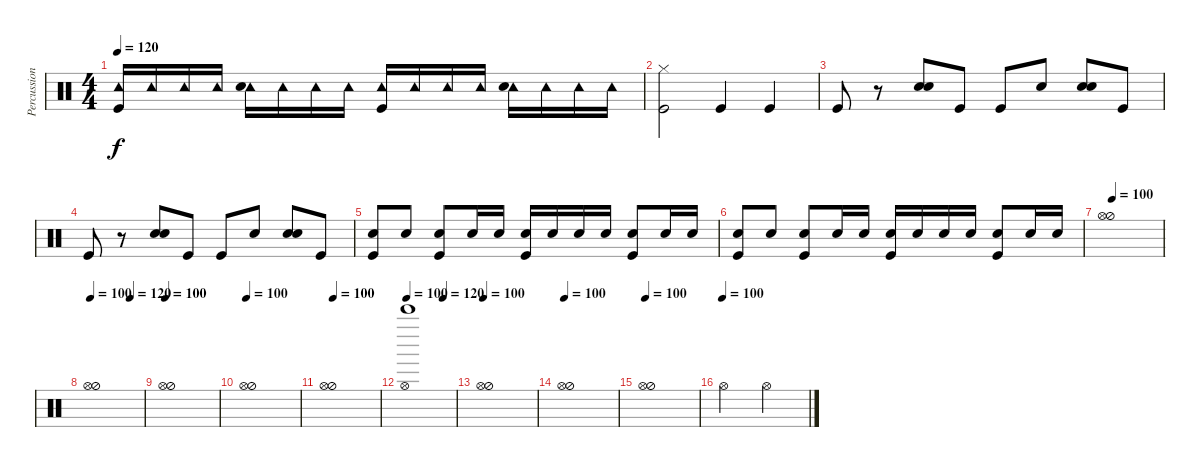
\track ("Percussion" "Percussion") {instrument percussion}
\staff {score}
\articulation defaults
\ts (4 4)
\tempo 120
\clef neutral
\ks c
("Tambourine (hit)" "Kick (hit)").16{dy f} "Tambourine (hit)".16 "Tambourine (hit)".16 "Tambourine (hit)".16 ("Tambourine (hit)" "Snare (hit) 2").16 "Tambourine (hit)".16 "Tambourine (hit)".16 "Tambourine (hit)".16 ("Tambourine (hit)" "Kick (hit)").16 "Tambourine (hit)".16 "Tambourine (hit)".16 "Tambourine (hit)".16 ("Tambourine (hit)" "Snare (hit) 2").16 "Tambourine (hit)".16 "Tambourine (hit)".16 "Tambourine (hit)".16 |
("Hi-Hat (closed)" "Kick (hit)").2 "Kick (hit)".4 "Kick (hit)".4 |
"Kick (hit)".8 r.8 ("Hand Clap (hit)" "Snare (hit) 2").8 "Kick (hit)".8 "Kick (hit)".8 "Hand Clap (hit)".8 ("Hand Clap (hit)" "Snare (hit) 2").8 "Kick (hit)".8 |
"Kick (hit)".8 r.8 ("Hand Clap (hit)" "Snare (hit) 2").8 "Kick (hit)".8 "Kick (hit)".8 "Hand Clap (hit)".8 ("Hand Clap (hit)" "Snare (hit) 2").8 "Kick (hit)".8 |
("Snare (hit) 2" "Kick (hit)").8 "Snare (hit) 2".8 ("Snare (hit) 2" "Kick (hit)").8 "Snare (hit) 2".16 "Snare (hit) 2".16 ("Snare (hit) 2" "Kick (hit)").16 "Snare (hit) 2".16 "Snare (hit) 2".16 "Snare (hit) 2".16 ("Snare (hit) 2" "Kick (hit)").8 "Snare (hit) 2".16 "Snare (hit) 2".16 |
("Snare (hit) 2" "Kick (hit)").8 "Snare (hit) 2".8 ("Snare (hit) 2" "Kick (hit)").8 "Snare (hit) 2".16 "Snare (hit) 2".16 ("Snare (hit) 2" "Kick (hit)").16 "Snare (hit) 2".16 "Snare (hit) 2".16 "Snare (hit) 2".16 ("Snare (hit) 2" "Kick (hit)").8 "Snare (hit) 2".16 "Snare (hit) 2".16 |
\tempo (100 0.125)
("Hi-Hat (half)" "Hi-Hat (open)").1 |
\tempo 100
\tempo (120 0.75)
("Hi-Hat (half)" "Hi-Hat (open)").1 |
\tempo 100
("Hi-Hat (half)" "Hi-Hat (open)").1 |
\tempo 100
("Hi-Hat (half)" "Hi-Hat (open)").1 |
\tempo (100 0.125)
("Hi-Hat (half)" "Hi-Hat (open)").1 |
\tempo 100
\tempo (120 0.75)
("Bell Tree (hit)" "Hi-Hat (open)").1 |
\tempo 100
("Hi-Hat (half)" "Hi-Hat (open)").1 |
\tempo 100
("Hi-Hat (half)" "Hi-Hat (open)").1 |
\tempo 100
("Hi-Hat (half)" "Hi-Hat (open)").1 |
\tempo (100)
"Hi-Hat (open)".2 "Hi-Hat (open)".2
